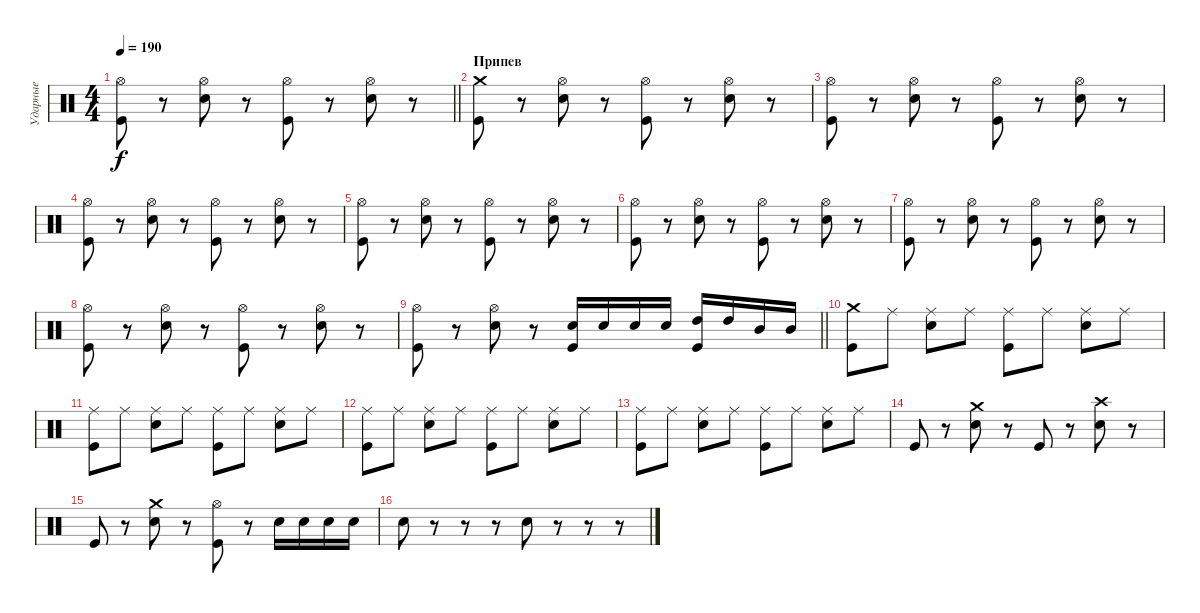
\track ("Ударные" "Ударные") {instrument percussion}
\staff {score}
\articulation defaults
\ts (4 4)
\tempo 190
\clef neutral
\barLineRight lightlight
\ks c
("Hi-Hat (open)" "Kick (hit)").8{dy f} r.8 ("Hi-Hat (open)" "Electric Snare (hit)").8 r.8 ("Hi-Hat (open)" "Kick (hit)").8 r.8 ("Hi-Hat (open)" "Electric Snare (hit)").8 r.8 |
\section ("" "Припев")
("Crash medium (hit)" "Kick (hit)").8 r.8 ("Hi-Hat (open)" "Electric Snare (hit)").8 r.8 ("Hi-Hat (open)" "Kick (hit)").8 r.8 ("Hi-Hat (open)" "Electric Snare (hit)").8 r.8 |
("Hi-Hat (open)" "Kick (hit)").8 r.8 ("Hi-Hat (open)" "Electric Snare (hit)").8 r.8 ("Hi-Hat (open)" "Kick (hit)").8 r.8 ("Hi-Hat (open)" "Electric Snare (hit)").8 r.8 |
("Hi-Hat (open)" "Kick (hit)").8 r.8 ("Hi-Hat (open)" "Electric Snare (hit)").8 r.8 ("Hi-Hat (open)" "Kick (hit)").8 r.8 ("Hi-Hat (open)" "Electric Snare (hit)").8 r.8 |
("Hi-Hat (open)" "Kick (hit)").8 r.8 ("Hi-Hat (open)" "Electric Snare (hit)").8 r.8 ("Hi-Hat (open)" "Kick (hit)").8 r.8 ("Hi-Hat (open)" "Electric Snare (hit)").8 r.8 |
("Hi-Hat (open)" "Kick (hit)").8 r.8 ("Hi-Hat (open)" "Electric Snare (hit)").8 r.8 ("Hi-Hat (open)" "Kick (hit)").8 r.8 ("Hi-Hat (open)" "Electric Snare (hit)").8 r.8 |
("Hi-Hat (open)" "Kick (hit)").8 r.8 ("Hi-Hat (open)" "Electric Snare (hit)").8 r.8 ("Hi-Hat (open)" "Kick (hit)").8 r.8 ("Hi-Hat (open)" "Electric Snare (hit)").8 r.8 |
("Hi-Hat (open)" "Kick (hit)").8 r.8 ("Hi-Hat (open)" "Electric Snare (hit)").8 r.8 ("Hi-Hat (open)" "Kick (hit)").8 r.8 ("Hi-Hat (open)" "Electric Snare (hit)").8 r.8 |
\barLineRight lightlight
("Hi-Hat (open)" "Kick (hit)").8 r.8 ("Hi-Hat (open)" "Electric Snare (hit)").8 r.8 ("Electric Snare (hit)" "Kick (hit)").16 "Electric Snare (hit)".16 "Electric Snare (hit)".16 "Electric Snare (hit)".16 ("High Tom (hit)" "Kick (hit)").16 "High Tom (hit)".16 "Mid Tom (hit)".16 "Mid Tom (hit)".16 |
\section ("" " ")
("Crash medium (hit)" "Kick (hit)").8 "Ride (middle)".8 ("Ride (middle)" "Electric Snare (hit)").8 "Ride (middle)".8 ("Ride (middle)" "Kick (hit)").8 "Ride (middle)".8 ("Ride (middle)" "Electric Snare (hit)").8 "Ride (middle)".8 |
("Ride (middle)" "Kick (hit)").8 "Ride (middle)".8 ("Ride (middle)" "Electric Snare (hit)").8 "Ride (middle)".8 ("Ride (middle)" "Kick (hit)").8 "Ride (middle)".8 ("Ride (middle)" "Electric Snare (hit)").8 "Ride (middle)".8 |
("Ride (middle)" "Kick (hit)").8 "Ride (middle)".8 ("Ride (middle)" "Electric Snare (hit)").8 "Ride (middle)".8 ("Ride (middle)" "Kick (hit)").8 "Ride (middle)".8 ("Ride (middle)" "Electric Snare (hit)").8 "Ride (middle)".8 |
("Ride (middle)" "Kick (hit)").8 "Ride (middle)".8 ("Ride (middle)" "Electric Snare (hit)").8 "Ride (middle)".8 ("Ride (middle)" "Kick (hit)").8 "Ride (middle)".8 ("Ride (middle)" "Electric Snare (hit)").8 "Ride (middle)".8 |
"Kick (hit)".8 r.8 ("Crash medium (hit)" "Electric Snare (hit)").8 r.8 "Kick (hit)".8 r.8 ("Crash high (hit)" "Electric Snare (hit)").8 r.8 |
"Kick (hit)".8 r.8 ("Crash medium (hit)" "Electric Snare (hit)").8 r.8 ("Hi-Hat (open)" "Kick (hit)").8 r.8 "Electric Snare (hit)".16 "Electric Snare (hit)".16 "Electric Snare (hit)".16 "Electric Snare (hit)".16 |
"Electric Snare (hit)".8 r.8 r.8 r.8 "Electric Snare (hit)".8 r.8 r.8 r.8
